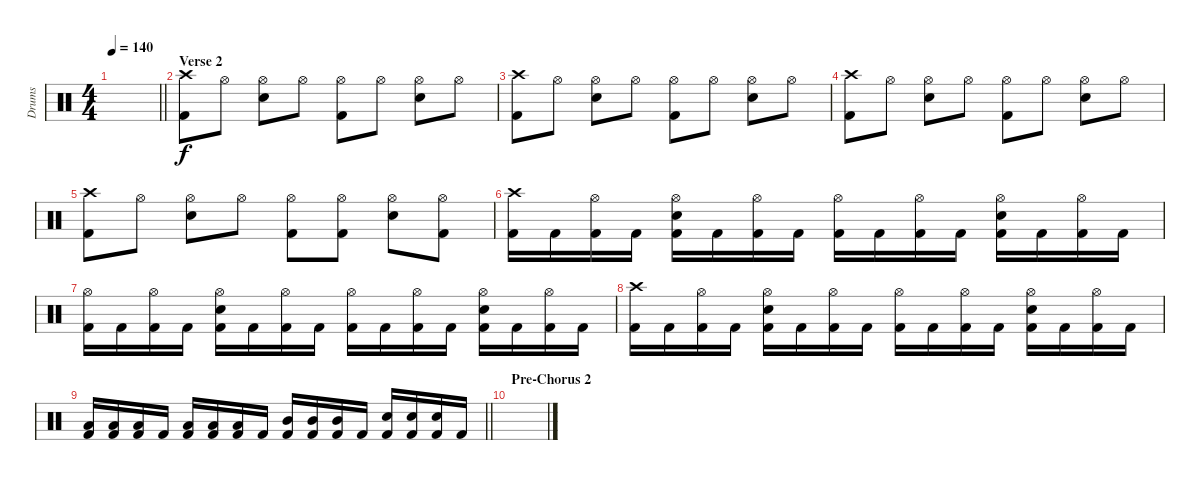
\track ("Drums" "Drums") {instrument percussion}
\staff {score}
\articulation defaults
\ts (4 4)
\tempo 140
\clef neutral
\barLineRight lightlight
\ks c
|
\section ("" "Verse 2")
("Crash high (hit)" "Kick (hit) 2").8 "Hi-Hat (open)".8 ("Hi-Hat (open)" "Snare (hit) 2").8 "Hi-Hat (open)".8 ("Hi-Hat (open)" "Kick (hit) 2").8 "Hi-Hat (open)".8 ("Hi-Hat (open)" "Snare (hit) 2").8 "Hi-Hat (open)".8 |
("Crash high (hit)" "Kick (hit) 2").8 "Hi-Hat (open)".8 ("Hi-Hat (open)" "Snare (hit) 2").8 "Hi-Hat (open)".8 ("Hi-Hat (open)" "Kick (hit) 2").8 "Hi-Hat (open)".8 ("Hi-Hat (open)" "Snare (hit) 2").8 "Hi-Hat (open)".8 |
("Crash high (hit)" "Kick (hit) 2").8 "Hi-Hat (open)".8 ("Hi-Hat (open)" "Snare (hit) 2").8 "Hi-Hat (open)".8 ("Hi-Hat (open)" "Kick (hit) 2").8 "Hi-Hat (open)".8 ("Hi-Hat (open)" "Snare (hit) 2").8 "Hi-Hat (open)".8 |
("Crash high (hit)" "Kick (hit) 2").8 "Hi-Hat (open)".8 ("Hi-Hat (open)" "Snare (hit) 2").8 "Hi-Hat (open)".8 ("Hi-Hat (open)" "Kick (hit) 2").8 ("Hi-Hat (open)" "Kick (hit) 2").8 ("Hi-Hat (open)" "Snare (hit) 2").8 ("Hi-Hat (open)" "Kick (hit) 2").8 |
("Crash high (hit)" "Kick (hit) 2").16 "Kick (hit) 2".16 ("Hi-Hat (open)" "Kick (hit) 2").16 "Kick (hit) 2".16 ("Hi-Hat (open)" "Snare (hit) 2" "Kick (hit) 2").16 "Kick (hit) 2".16 ("Hi-Hat (open)" "Kick (hit) 2").16 "Kick (hit) 2".16 ("Hi-Hat (open)" "Kick (hit) 2").16 "Kick (hit) 2".16 ("Hi-Hat (open)" "Kick (hit) 2").16 "Kick (hit) 2".16 ("Hi-Hat (open)" "Snare (hit) 2" "Kick (hit) 2").16 "Kick (hit) 2".16 ("Hi-Hat (open)" "Kick (hit) 2").16 "Kick (hit) 2".16 |
("Hi-Hat (open)" "Kick (hit) 2").16 "Kick (hit) 2".16 ("Hi-Hat (open)" "Kick (hit) 2").16 "Kick (hit) 2".16 ("Hi-Hat (open)" "Snare (hit) 2" "Kick (hit) 2").16 "Kick (hit) 2".16 ("Hi-Hat (open)" "Kick (hit) 2").16 "Kick (hit) 2".16 ("Hi-Hat (open)" "Kick (hit) 2").16 "Kick (hit) 2".16 ("Hi-Hat (open)" "Kick (hit) 2").16 "Kick (hit) 2".16 ("Hi-Hat (open)" "Snare (hit) 2" "Kick (hit) 2").16 "Kick (hit) 2".16 ("Hi-Hat (open)" "Kick (hit) 2").16 "Kick (hit) 2".16 |
("Crash high (hit)" "Kick (hit) 2").16 "Kick (hit) 2".16 ("Hi-Hat (open)" "Kick (hit) 2").16 "Kick (hit) 2".16 ("Hi-Hat (open)" "Snare (hit) 2" "Kick (hit) 2").16 "Kick (hit) 2".16 ("Hi-Hat (open)" "Kick (hit) 2").16 "Kick (hit) 2".16 ("Hi-Hat (open)" "Kick (hit) 2").16 "Kick (hit) 2".16 ("Hi-Hat (open)" "Kick (hit) 2").16 "Kick (hit) 2".16 ("Hi-Hat (open)" "Snare (hit) 2" "Kick (hit) 2").16 "Kick (hit) 2".16 ("Hi-Hat (open)" "Kick (hit) 2").16 "Kick (hit) 2".16 |
\barLineRight lightlight
("Low Floor Tom (hit)" "Kick (hit) 2").16 ("Low Floor Tom (hit)" "Kick (hit) 2").16 ("Low Floor Tom (hit)" "Kick (hit) 2").16 "Kick (hit) 2".16 ("Low Tom (hit)" "Kick (hit) 2").16 ("Low Tom (hit)" "Kick (hit) 2").16 ("Low Tom (hit)" "Kick (hit) 2").16 "Kick (hit) 2".16 ("Mid Tom (hit)" "Kick (hit) 2").16 ("Mid Tom (hit)" "Kick (hit) 2").16 ("Mid Tom (hit)" "Kick (hit) 2").16 "Kick (hit) 2".16 ("Snare (hit) 2" "Kick (hit) 2").16 ("Snare (hit) 2" "Kick (hit) 2").16 ("Snare (hit) 2" "Kick (hit) 2").16 "Kick (hit) 2".16 |
\section ("" "Pre-Chorus 2")
